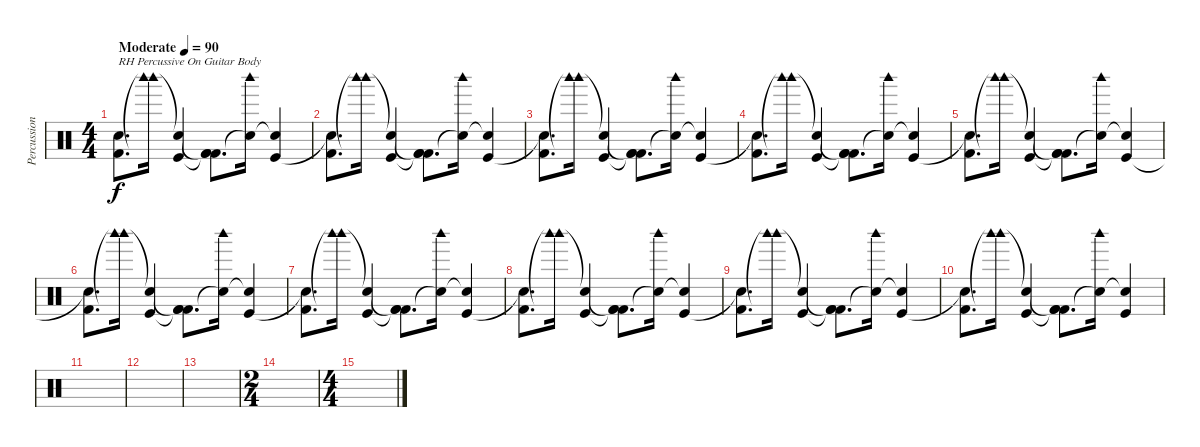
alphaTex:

\track ("Percussion" "Percussion") {instrument percussion}
\staff {score}
\articulation defaults
\ts (4 4)
\tempo (90 "Moderate")
\clef neutral
\ks c
("Kick (hit) 2" "Snare (hit)").8{d txt "RH Percussive On Guitar Body" dy f} ("Woodblock high (hit)"{t} "Woodblock high (hit)").16 ("Snare (hit)"{t} "Kick (hit)").4 ("Kick (hit) 2"{t} "Kick (hit) 2"{t} "Kick (hit) 2").8{d} ("Snare (hit)"{t} "Woodblock high (hit)").16 ("Snare (hit)"{t} "Kick (hit)").4 |
("Kick (hit) 2" "Snare (hit)"{t}).8{d} ("Woodblock high (hit)"{t} "Woodblock high (hit)").16 ("Snare (hit)"{t} "Kick (hit)").4 ("Kick (hit) 2"{t} "Kick (hit) 2"{t} "Kick (hit) 2").8{d} ("Snare (hit)"{t} "Woodblock high (hit)").16 ("Snare (hit)"{t} "Kick (hit)").4 |
("Kick (hit) 2" "Snare (hit)"{t}).8{d} ("Woodblock high (hit)"{t} "Woodblock high (hit)").16 ("Snare (hit)"{t} "Kick (hit)").4 ("Kick (hit) 2"{t} "Kick (hit) 2"{t} "Kick (hit) 2").8{d} ("Snare (hit)"{t} "Woodblock high (hit)").16 ("Snare (hit)"{t} "Kick (hit)").4 |
("Kick (hit) 2" "Snare (hit)"{t}).8{d} ("Woodblock high (hit)"{t} "Woodblock high (hit)").16 ("Snare (hit)"{t} "Kick (hit)").4 ("Kick (hit) 2"{t} "Kick (hit) 2"{t} "Kick (hit) 2").8{d} ("Snare (hit)"{t} "Woodblock high (hit)").16 ("Snare (hit)"{t} "Kick (hit)").4 |
("Kick (hit) 2" "Snare (hit)"{t}).8{d} ("Woodblock high (hit)"{t} "Woodblock high (hit)").16 ("Snare (hit)"{t} "Kick (hit)").4 ("Kick (hit) 2"{t} "Kick (hit) 2"{t} "Kick (hit) 2").8{d} ("Snare (hit)"{t} "Woodblock high (hit)").16 ("Snare (hit)"{t} "Kick (hit)").4 |
("Kick (hit) 2" "Snare (hit)"{t}).8{d} ("Woodblock high (hit)"{t} "Woodblock high (hit)").16 ("Snare (hit)"{t} "Kick (hit)").4 ("Kick (hit) 2"{t} "Kick (hit) 2"{t} "Kick (hit) 2").8{d} ("Snare (hit)"{t} "Woodblock high (hit)").16 ("Snare (hit)"{t} "Kick (hit)").4 |
("Kick (hit) 2" "Snare (hit)"{t}).8{d} ("Woodblock high (hit)"{t} "Woodblock high (hit)").16 ("Snare (hit)"{t} "Kick (hit)").4 ("Kick (hit) 2"{t} "Kick (hit) 2"{t} "Kick (hit) 2").8{d} ("Snare (hit)"{t} "Woodblock high (hit)").16 ("Snare (hit)"{t} "Kick (hit)").4 |
("Kick (hit) 2" "Snare (hit)"{t}).8{d} ("Woodblock high (hit)"{t} "Woodblock high (hit)").16 ("Snare (hit)"{t} "Kick (hit)").4 ("Kick (hit) 2"{t} "Kick (hit) 2"{t} "Kick (hit) 2").8{d} ("Snare (hit)"{t} "Woodblock high (hit)").16 ("Snare (hit)"{t} "Kick (hit)").4 |
("Kick (hit) 2" "Snare (hit)"{t}).8{d} ("Woodblock high (hit)"{t} "Woodblock high (hit)").16 ("Snare (hit)"{t} "Kick (hit)").4 ("Kick (hit) 2"{t} "Kick (hit) 2"{t} "Kick (hit) 2").8{d} ("Snare (hit)"{t} "Woodblock high (hit)").16 ("Snare (hit)"{t} "Kick (hit)").4 |
("Kick (hit) 2" "Snare (hit)"{t}).8{d} ("Woodblock high (hit)"{t} "Woodblock high (hit)").16 ("Snare (hit)"{t} "Kick (hit)").4 ("Kick (hit) 2"{t} "Kick (hit) 2"{t} "Kick (hit) 2").8{d} ("Snare (hit)"{t} "Woodblock high (hit)").16 ("Snare (hit)"{t} "Kick (hit)").4 |
|
|
|
\ts (2 4)
|
\ts (4 4)
